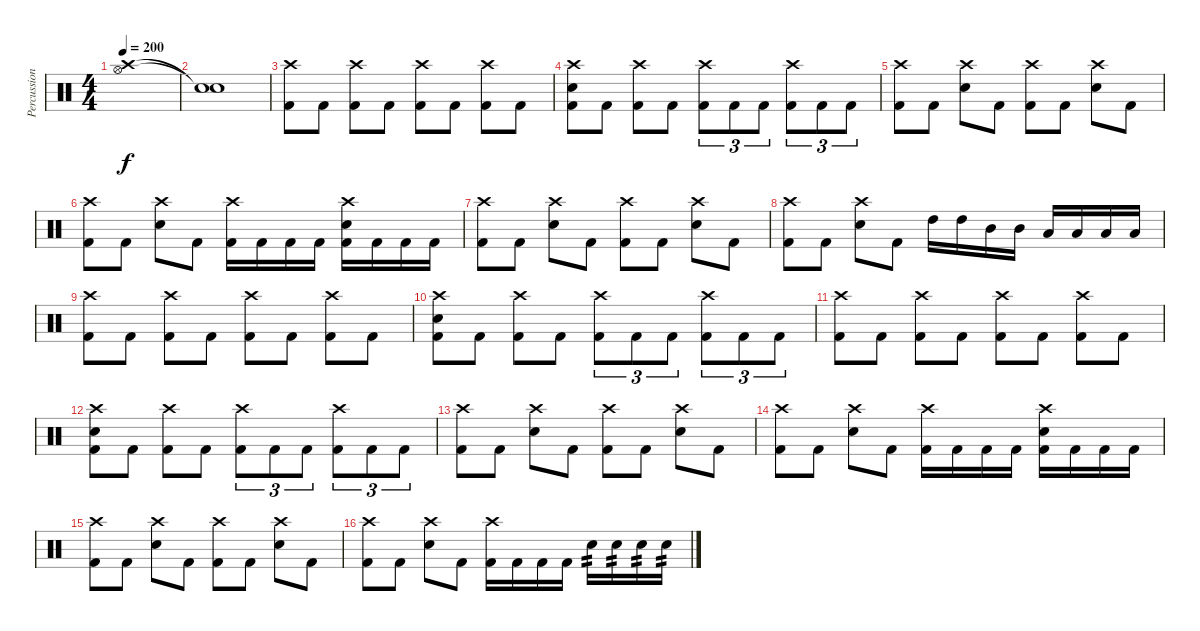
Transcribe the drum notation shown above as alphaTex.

\track ("Percussion" "Percussion") {instrument percussion}
\staff {score}
\articulation defaults
\ts (4 4)
\tempo 200
\clef neutral
\ks c
("Crash high (hit)" "Hi-Hat (open)").1{dy f} |
("Snare (hit)"{t} "Snare (hit)"{t}).1 |
("Crash high (hit)" "Kick (hit) 2").8 "Kick (hit) 2".8 ("Crash high (hit)" "Kick (hit) 2").8 "Kick (hit) 2".8 ("Crash high (hit)" "Kick (hit) 2").8 "Kick (hit) 2".8 ("Crash high (hit)" "Kick (hit) 2").8 "Kick (hit) 2".8 |
("Crash high (hit)" "Electric Snare (hit)" "Kick (hit) 2").8 "Kick (hit) 2".8 ("Crash high (hit)" "Kick (hit) 2").8 "Kick (hit) 2".8 ("Crash high (hit)" "Kick (hit) 2").8{tu (3 2)} "Kick (hit) 2".8{tu (3 2)} "Kick (hit) 2".8{tu (3 2)} ("Crash high (hit)" "Kick (hit) 2").8{tu (3 2)} "Kick (hit) 2".8{tu (3 2)} "Kick (hit) 2".8{tu (3 2)} |
("Crash high (hit)" "Kick (hit) 2").8 "Kick (hit) 2".8 ("Crash high (hit)" "Electric Snare (hit)").8 "Kick (hit) 2".8 ("Crash high (hit)" "Kick (hit) 2").8 "Kick (hit) 2".8 ("Crash high (hit)" "Electric Snare (hit)").8 "Kick (hit) 2".8 |
("Crash high (hit)" "Kick (hit) 2").8 "Kick (hit) 2".8 ("Crash high (hit)" "Electric Snare (hit)").8 "Kick (hit) 2".8 ("Crash high (hit)" "Kick (hit) 2").16 "Kick (hit) 2".16 "Kick (hit) 2".16 "Kick (hit) 2".16 ("Crash high (hit)" "Electric Snare (hit)" "Kick (hit) 2").16 "Kick (hit) 2".16 "Kick (hit) 2".16 "Kick (hit) 2".16 |
("Crash high (hit)" "Kick (hit) 2").8 "Kick (hit) 2".8 ("Crash high (hit)" "Electric Snare (hit)").8 "Kick (hit) 2".8 ("Crash high (hit)" "Kick (hit) 2").8 "Kick (hit) 2".8 ("Crash high (hit)" "Electric Snare (hit)").8 "Kick (hit) 2".8 |
("Crash high (hit)" "Kick (hit) 2").8 "Kick (hit) 2".8 ("Crash high (hit)" "Electric Snare (hit)").8 "Kick (hit) 2".8 "High Tom (hit)".16 "High Tom (hit)".16 "Mid Tom (hit)".16 "Mid Tom (hit)".16 "Low Tom (hit)".16 "Low Tom (hit)".16 "Low Floor Tom (hit)".16 "Low Floor Tom (hit)".16 |
("Crash high (hit)" "Kick (hit) 2").8 "Kick (hit) 2".8 ("Crash high (hit)" "Kick (hit) 2").8 "Kick (hit) 2".8 ("Crash high (hit)" "Kick (hit) 2").8 "Kick (hit) 2".8 ("Crash high (hit)" "Kick (hit) 2").8 "Kick (hit) 2".8 |
("Crash high (hit)" "Electric Snare (hit)" "Kick (hit) 2").8 "Kick (hit) 2".8 ("Crash high (hit)" "Kick (hit) 2").8 "Kick (hit) 2".8 ("Crash high (hit)" "Kick (hit) 2").8{tu (3 2)} "Kick (hit) 2".8{tu (3 2)} "Kick (hit) 2".8{tu (3 2)} ("Crash high (hit)" "Kick (hit) 2").8{tu (3 2)} "Kick (hit) 2".8{tu (3 2)} "Kick (hit) 2".8{tu (3 2)} |
("Crash high (hit)" "Kick (hit) 2").8 "Kick (hit) 2".8 ("Crash high (hit)" "Kick (hit) 2").8 "Kick (hit) 2".8 ("Crash high (hit)" "Kick (hit) 2").8 "Kick (hit) 2".8 ("Crash high (hit)" "Kick (hit) 2").8 "Kick (hit) 2".8 |
("Crash high (hit)" "Electric Snare (hit)" "Kick (hit) 2").8 "Kick (hit) 2".8 ("Crash high (hit)" "Kick (hit) 2").8 "Kick (hit) 2".8 ("Crash high (hit)" "Kick (hit) 2").8{tu (3 2)} "Kick (hit) 2".8{tu (3 2)} "Kick (hit) 2".8{tu (3 2)} ("Crash high (hit)" "Kick (hit) 2").8{tu (3 2)} "Kick (hit) 2".8{tu (3 2)} "Kick (hit) 2".8{tu (3 2)} |
("Crash high (hit)" "Kick (hit) 2").8 "Kick (hit) 2".8 ("Crash high (hit)" "Electric Snare (hit)").8 "Kick (hit) 2".8 ("Crash high (hit)" "Kick (hit) 2").8 "Kick (hit) 2".8 ("Crash high (hit)" "Electric Snare (hit)").8 "Kick (hit) 2".8 |
("Crash high (hit)" "Kick (hit) 2").8 "Kick (hit) 2".8 ("Crash high (hit)" "Electric Snare (hit)").8 "Kick (hit) 2".8 ("Crash high (hit)" "Kick (hit) 2").16 "Kick (hit) 2".16 "Kick (hit) 2".16 "Kick (hit) 2".16 ("Crash high (hit)" "Electric Snare (hit)" "Kick (hit) 2").16 "Kick (hit) 2".16 "Kick (hit) 2".16 "Kick (hit) 2".16 |
("Crash high (hit)" "Kick (hit) 2").8 "Kick (hit) 2".8 ("Crash high (hit)" "Electric Snare (hit)").8 "Kick (hit) 2".8 ("Crash high (hit)" "Kick (hit) 2").8 "Kick (hit) 2".8 ("Crash high (hit)" "Electric Snare (hit)").8 "Kick (hit) 2".8 |
("Crash high (hit)" "Kick (hit) 2").8 "Kick (hit) 2".8 ("Crash high (hit)" "Electric Snare (hit)").8 "Kick (hit) 2".8 ("Crash high (hit)" "Kick (hit) 2").16 "Kick (hit) 2".16 "Kick (hit) 2".16 "Kick (hit) 2".16 "Electric Snare (hit)".16{tp 2} "Electric Snare (hit)".16{tp 2} "Electric Snare (hit)".16{tp 2} "Electric Snare (hit)".16{tp 2}
